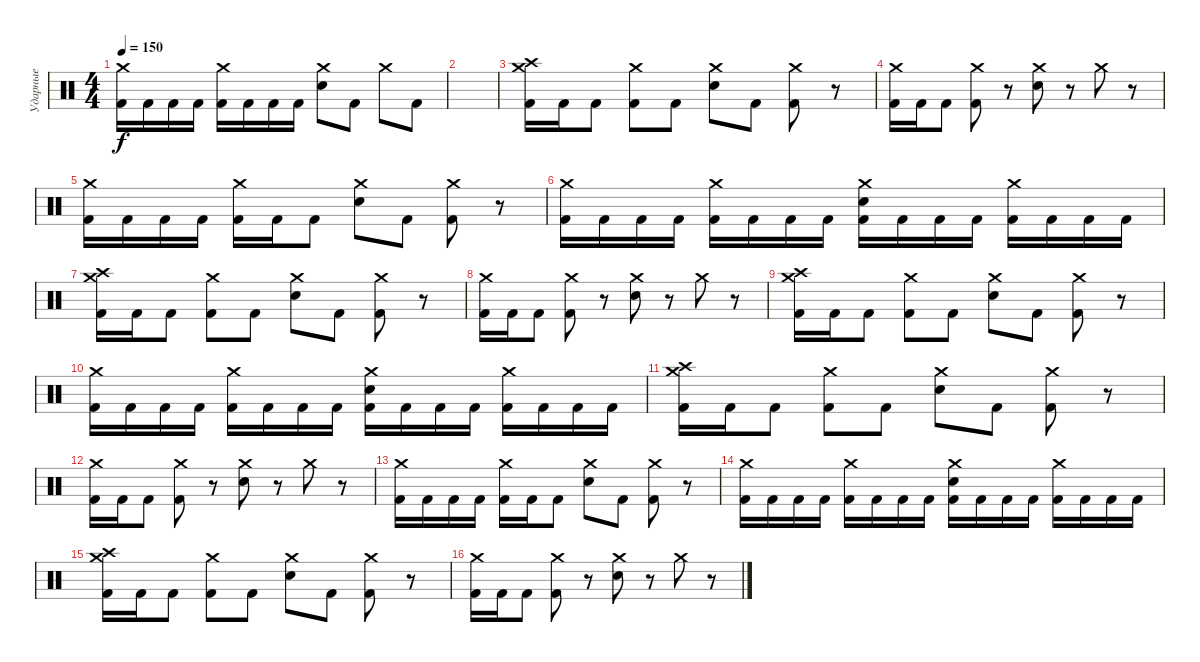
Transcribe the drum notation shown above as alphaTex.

\track ("Ударные" "Ударные") {instrument percussion}
\staff {score}
\articulation defaults
\ts (4 4)
\tempo 150
\clef neutral
\ks c
("Crash medium (hit)" "Kick (hit) 2").16{dy f} "Kick (hit) 2".16 "Kick (hit) 2".16 "Kick (hit) 2".16 ("Crash medium (hit)" "Kick (hit) 2").16 "Kick (hit) 2".16 "Kick (hit) 2".16 "Kick (hit) 2".16 ("Crash medium (hit)" "Electric Snare (hit)").8 "Kick (hit) 2".8 "Crash medium (hit)".8 "Kick (hit) 2".8 |
|
("Crash medium (hit)" "Crash high (hit)" "Kick (hit) 2").16 "Kick (hit) 2".16 "Kick (hit) 2".8 ("Crash medium (hit)" "Kick (hit) 2").8 "Kick (hit) 2".8 ("Crash medium (hit)" "Electric Snare (hit)").8 "Kick (hit) 2".8 ("Crash medium (hit)" "Kick (hit) 2").8 r.8 |
("Crash medium (hit)" "Kick (hit) 2").16 "Kick (hit) 2".16 "Kick (hit) 2".8 ("Crash medium (hit)" "Kick (hit) 2").8 r.8 ("Crash medium (hit)" "Electric Snare (hit)").8 r.8 "Crash medium (hit)".8 r.8 |
("Crash medium (hit)" "Kick (hit) 2").16 "Kick (hit) 2".16 "Kick (hit) 2".16 "Kick (hit) 2".16 ("Crash medium (hit)" "Kick (hit) 2").16 "Kick (hit) 2".16 "Kick (hit) 2".8 ("Crash medium (hit)" "Electric Snare (hit)").8 "Kick (hit) 2".8 ("Crash medium (hit)" "Kick (hit) 2").8 r.8 |
("Crash medium (hit)" "Kick (hit) 2").16 "Kick (hit) 2".16 "Kick (hit) 2".16 "Kick (hit) 2".16 ("Crash medium (hit)" "Kick (hit) 2").16 "Kick (hit) 2".16 "Kick (hit) 2".16 "Kick (hit) 2".16 ("Crash medium (hit)" "Electric Snare (hit)" "Kick (hit) 2").16 "Kick (hit) 2".16 "Kick (hit) 2".16 "Kick (hit) 2".16 ("Crash medium (hit)" "Kick (hit) 2").16 "Kick (hit) 2".16 "Kick (hit) 2".16 "Kick (hit) 2".16 |
("Crash medium (hit)" "Crash high (hit)" "Kick (hit) 2").16 "Kick (hit) 2".16 "Kick (hit) 2".8 ("Crash medium (hit)" "Kick (hit) 2").8 "Kick (hit) 2".8 ("Crash medium (hit)" "Electric Snare (hit)").8 "Kick (hit) 2".8 ("Crash medium (hit)" "Kick (hit) 2").8 r.8 |
("Crash medium (hit)" "Kick (hit) 2").16 "Kick (hit) 2".16 "Kick (hit) 2".8 ("Crash medium (hit)" "Kick (hit) 2").8 r.8 ("Crash medium (hit)" "Electric Snare (hit)").8 r.8 "Crash medium (hit)".8 r.8 |
("Crash medium (hit)" "Crash high (hit)" "Kick (hit) 2").16 "Kick (hit) 2".16 "Kick (hit) 2".8 ("Crash medium (hit)" "Kick (hit) 2").8 "Kick (hit) 2".8 ("Crash medium (hit)" "Electric Snare (hit)").8 "Kick (hit) 2".8 ("Crash medium (hit)" "Kick (hit) 2").8 r.8 |
("Crash medium (hit)" "Kick (hit) 2").16 "Kick (hit) 2".16 "Kick (hit) 2".16 "Kick (hit) 2".16 ("Crash medium (hit)" "Kick (hit) 2").16 "Kick (hit) 2".16 "Kick (hit) 2".16 "Kick (hit) 2".16 ("Crash medium (hit)" "Electric Snare (hit)" "Kick (hit) 2").16 "Kick (hit) 2".16 "Kick (hit) 2".16 "Kick (hit) 2".16 ("Crash medium (hit)" "Kick (hit) 2").16 "Kick (hit) 2".16 "Kick (hit) 2".16 "Kick (hit) 2".16 |
("Crash medium (hit)" "Crash high (hit)" "Kick (hit) 2").16 "Kick (hit) 2".16 "Kick (hit) 2".8 ("Crash medium (hit)" "Kick (hit) 2").8 "Kick (hit) 2".8 ("Crash medium (hit)" "Electric Snare (hit)").8 "Kick (hit) 2".8 ("Crash medium (hit)" "Kick (hit) 2").8 r.8 |
("Crash medium (hit)" "Kick (hit) 2").16 "Kick (hit) 2".16 "Kick (hit) 2".8 ("Crash medium (hit)" "Kick (hit) 2").8 r.8 ("Crash medium (hit)" "Electric Snare (hit)").8 r.8 "Crash medium (hit)".8 r.8 |
("Crash medium (hit)" "Kick (hit) 2").16 "Kick (hit) 2".16 "Kick (hit) 2".16 "Kick (hit) 2".16 ("Crash medium (hit)" "Kick (hit) 2").16 "Kick (hit) 2".16 "Kick (hit) 2".8 ("Crash medium (hit)" "Electric Snare (hit)").8 "Kick (hit) 2".8 ("Crash medium (hit)" "Kick (hit) 2").8 r.8 |
("Crash medium (hit)" "Kick (hit) 2").16 "Kick (hit) 2".16 "Kick (hit) 2".16 "Kick (hit) 2".16 ("Crash medium (hit)" "Kick (hit) 2").16 "Kick (hit) 2".16 "Kick (hit) 2".16 "Kick (hit) 2".16 ("Crash medium (hit)" "Electric Snare (hit)" "Kick (hit) 2").16 "Kick (hit) 2".16 "Kick (hit) 2".16 "Kick (hit) 2".16 ("Crash medium (hit)" "Kick (hit) 2").16 "Kick (hit) 2".16 "Kick (hit) 2".16 "Kick (hit) 2".16 |
("Crash medium (hit)" "Crash high (hit)" "Kick (hit) 2").16 "Kick (hit) 2".16 "Kick (hit) 2".8 ("Crash medium (hit)" "Kick (hit) 2").8 "Kick (hit) 2".8 ("Crash medium (hit)" "Electric Snare (hit)").8 "Kick (hit) 2".8 ("Crash medium (hit)" "Kick (hit) 2").8 r.8 |
("Crash medium (hit)" "Kick (hit) 2").16 "Kick (hit) 2".16 "Kick (hit) 2".8 ("Crash medium (hit)" "Kick (hit) 2").8 r.8 ("Crash medium (hit)" "Electric Snare (hit)").8 r.8 "Crash medium (hit)".8 r.8
